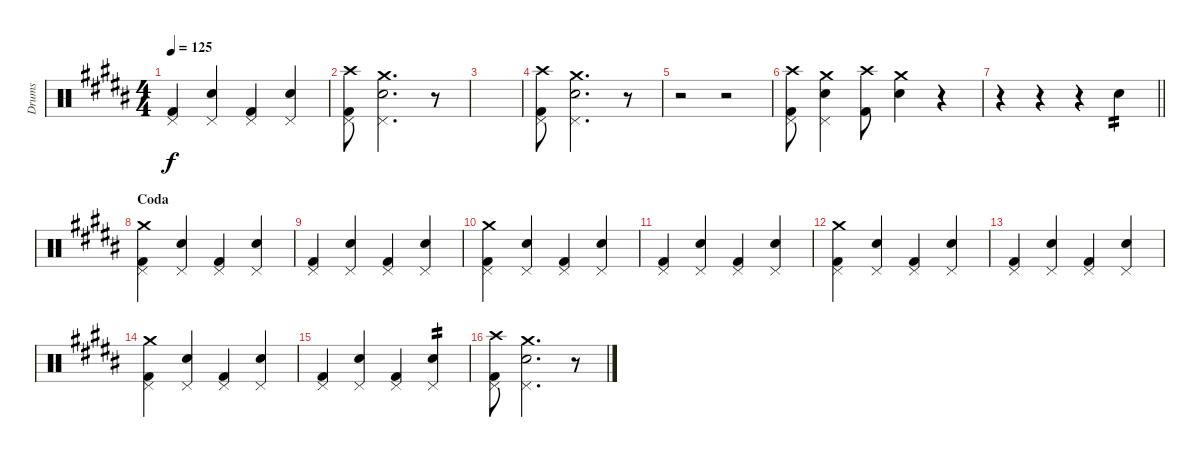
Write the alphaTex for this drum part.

\track ("Drums" "Drums") {instrument percussion}
\staff {score}
\articulation defaults
\ts (4 4)
\tempo 125
\clef neutral
\ks b
("Kick (hit) 2" "Pedal Hi-Hat (hit)").4{dy f} ("Snare (hit) 2" "Pedal Hi-Hat (hit)").4 ("Kick (hit) 2" "Pedal Hi-Hat (hit)").4 ("Snare (hit) 2" "Pedal Hi-Hat (hit)").4 |
("Kick (hit) 2" "Pedal Hi-Hat (hit)" "Crash high (hit)").8 ("Snare (hit) 2" "Pedal Hi-Hat (hit)" "Crash medium (hit)").2{d} r.8 |
|
("Kick (hit) 2" "Pedal Hi-Hat (hit)" "Crash high (hit)").8 ("Snare (hit) 2" "Pedal Hi-Hat (hit)" "Crash medium (hit)").2{d} r.8 |
r.2 r.2 |
("Kick (hit) 2" "Pedal Hi-Hat (hit)" "Crash high (hit)").8 ("Snare (hit) 2" "Pedal Hi-Hat (hit)" "Crash medium (hit)").4 ("Kick (hit) 2" "Crash high (hit)").8 ("Snare (hit) 2" "Crash medium (hit)").4 r.4 |
\barLineRight lightlight
r.4 r.4 r.4 "Snare (hit) 2".4{tp 2} |
\section ("" "Coda")
("Kick (hit) 2" "Pedal Hi-Hat (hit)" "Crash medium (hit)").4 ("Snare (hit) 2" "Pedal Hi-Hat (hit)").4 ("Kick (hit) 2" "Pedal Hi-Hat (hit)").4 ("Snare (hit) 2" "Pedal Hi-Hat (hit)").4 |
("Kick (hit) 2" "Pedal Hi-Hat (hit)").4 ("Snare (hit) 2" "Pedal Hi-Hat (hit)").4 ("Kick (hit) 2" "Pedal Hi-Hat (hit)").4 ("Snare (hit) 2" "Pedal Hi-Hat (hit)").4 |
("Kick (hit) 2" "Pedal Hi-Hat (hit)" "Crash medium (hit)").4 ("Snare (hit) 2" "Pedal Hi-Hat (hit)").4 ("Kick (hit) 2" "Pedal Hi-Hat (hit)").4 ("Snare (hit) 2" "Pedal Hi-Hat (hit)").4 |
("Kick (hit) 2" "Pedal Hi-Hat (hit)").4 ("Snare (hit) 2" "Pedal Hi-Hat (hit)").4 ("Kick (hit) 2" "Pedal Hi-Hat (hit)").4 ("Snare (hit) 2" "Pedal Hi-Hat (hit)").4 |
("Kick (hit) 2" "Pedal Hi-Hat (hit)" "Crash medium (hit)").4 ("Snare (hit) 2" "Pedal Hi-Hat (hit)").4 ("Kick (hit) 2" "Pedal Hi-Hat (hit)").4 ("Snare (hit) 2" "Pedal Hi-Hat (hit)").4 |
("Kick (hit) 2" "Pedal Hi-Hat (hit)").4 ("Snare (hit) 2" "Pedal Hi-Hat (hit)").4 ("Kick (hit) 2" "Pedal Hi-Hat (hit)").4 ("Snare (hit) 2" "Pedal Hi-Hat (hit)").4 |
("Kick (hit) 2" "Pedal Hi-Hat (hit)" "Crash medium (hit)").4 ("Snare (hit) 2" "Pedal Hi-Hat (hit)").4 ("Kick (hit) 2" "Pedal Hi-Hat (hit)").4 ("Snare (hit) 2" "Pedal Hi-Hat (hit)").4 |
("Kick (hit) 2" "Pedal Hi-Hat (hit)").4 ("Snare (hit) 2" "Pedal Hi-Hat (hit)").4 ("Kick (hit) 2" "Pedal Hi-Hat (hit)").4 ("Snare (hit) 2" "Pedal Hi-Hat (hit)").4{tp 2} |
("Kick (hit) 2" "Pedal Hi-Hat (hit)" "Crash high (hit)").8 ("Snare (hit) 2" "Pedal Hi-Hat (hit)" "Crash medium (hit)").2{d} r.8
